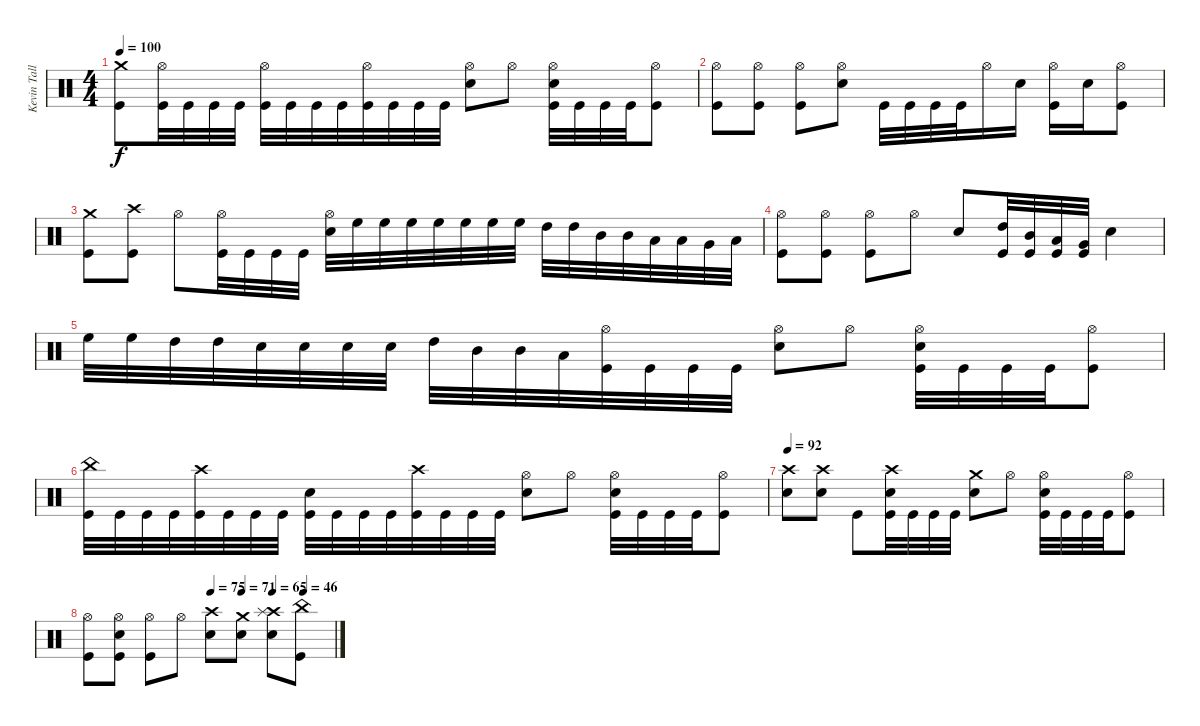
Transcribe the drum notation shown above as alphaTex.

\track ("Kevin Talley" "Kevin Tall") {instrument percussion}
\staff {score}
\articulation defaults
\ts (4 4)
\tempo 100
\clef neutral
\ks c
("Crash medium (hit)" "Kick (hit)").8{dy f} ("Hi-Hat (open)" "Kick (hit)").32 "Kick (hit)".32 "Kick (hit)".32 "Kick (hit)".32 ("Hi-Hat (open)" "Kick (hit)").32 "Kick (hit)".32 "Kick (hit)".32 "Kick (hit)".32 ("Hi-Hat (open)" "Kick (hit)").32 "Kick (hit)".32 "Kick (hit)".32 "Kick (hit)".32 ("Hi-Hat (open)" "Electric Snare (hit)").8 "Hi-Hat (open)".8 ("Hi-Hat (open)" "Electric Snare (hit)" "Kick (hit)").32 "Kick (hit)".32 "Kick (hit)".32 "Kick (hit)".32 ("Hi-Hat (open)" "Kick (hit)").8 |
("Hi-Hat (open)" "Kick (hit)").8 ("Hi-Hat (open)" "Kick (hit)").8 ("Hi-Hat (open)" "Kick (hit)").8 ("Hi-Hat (open)" "Electric Snare (hit)").8 "Kick (hit)".32 "Kick (hit)".32 "Kick (hit)".32 "Kick (hit)".32 "Hi-Hat (open)".16 "Electric Snare (hit)".16 ("Hi-Hat (open)" "Kick (hit)").16 "Electric Snare (hit)".16 ("Hi-Hat (open)" "Kick (hit)").8 |
("Crash medium (hit)" "Kick (hit)").8 ("Crash high (hit)" "Kick (hit)").8 "Hi-Hat (open)".8 ("Hi-Hat (open)" "Kick (hit)").32 "Kick (hit)".32 "Kick (hit)".32 "Kick (hit)".32 ("Hi-Hat (open)" "Electric Snare (hit)").32 "High Floor Tom (hit)".32 "High Floor Tom (hit)".32 "High Floor Tom (hit)".32 "High Floor Tom (hit)".32 "High Floor Tom (hit)".32 "High Floor Tom (hit)".32 "High Floor Tom (hit)".32 "High Tom (hit)".32 "High Tom (hit)".32 "Mid Tom (hit)".32 "Mid Tom (hit)".32 "Low Tom (hit)".32 "Low Tom (hit)".32 "Very Low Tom (hit)".32 "Low Floor Tom (hit)".32 |
("Hi-Hat (open)" "Kick (hit)").8 ("Hi-Hat (open)" "Kick (hit)").8 ("Hi-Hat (open)" "Kick (hit)").8 "Hi-Hat (open)".8 "Electric Snare (hit)".8 ("High Tom (hit)" "Kick (hit)").32 ("Mid Tom (hit)" "Kick (hit)").32 ("Low Tom (hit)" "Kick (hit)").32 ("Very Low Tom (hit)" "Kick (hit)").32 "Electric Snare (hit)".4 |
"High Floor Tom (hit)".32 "High Floor Tom (hit)".32 "High Tom (hit)".32 "High Tom (hit)".32 "Electric Snare (hit)".32 "Electric Snare (hit)".32 "Electric Snare (hit)".32 "Electric Snare (hit)".32 "High Tom (hit)".32 "Mid Tom (hit)".32 "Mid Tom (hit)".32 "Low Tom (hit)".32 ("Hi-Hat (open)" "Kick (hit)").32 "Kick (hit)".32 "Kick (hit)".32 "Kick (hit)".32 ("Hi-Hat (open)" "Electric Snare (hit)").8 "Hi-Hat (open)".8 ("Hi-Hat (open)" "Electric Snare (hit)" "Kick (hit)").32 "Kick (hit)".32 "Kick (hit)".32 "Kick (hit)".32 ("Hi-Hat (open)" "Kick (hit)").8 |
("China (hit)" "Kick (hit)").32 "Kick (hit)".32 "Kick (hit)".32 "Kick (hit)".32 ("Crash high (hit)" "Kick (hit)").32 "Kick (hit)".32 "Kick (hit)".32 "Kick (hit)".32 ("Electric Snare (hit)" "Kick (hit)").32 "Kick (hit)".32 "Kick (hit)".32 "Kick (hit)".32 ("Crash high (hit)" "Kick (hit)").32 "Kick (hit)".32 "Kick (hit)".32 "Kick (hit)".32 ("Hi-Hat (open)" "Electric Snare (hit)").8 "Hi-Hat (open)".8 ("Hi-Hat (open)" "Electric Snare (hit)" "Kick (hit)").32 "Kick (hit)".32 "Kick (hit)".32 "Kick (hit)".32 ("Hi-Hat (open)" "Kick (hit)").8 |
\tempo 92
("Crash high (hit)" "Electric Snare (hit)").8 ("Crash high (hit)" "Electric Snare (hit)").8 "Kick (hit)".8 ("Crash high (hit)" "Electric Snare (hit)" "Kick (hit)").32 "Kick (hit)".32 "Kick (hit)".32 "Kick (hit)".32 ("Crash medium (hit)" "Electric Snare (hit)").8 "Hi-Hat (open)".8 ("Hi-Hat (open)" "Electric Snare (hit)" "Kick (hit)").32 "Kick (hit)".32 "Kick (hit)".32 "Kick (hit)".32 ("Hi-Hat (open)" "Kick (hit)").8 |
\tempo (75 0.5)
\tempo (71 0.625)
\tempo (65 0.75)
\tempo (46 0.875)
("Hi-Hat (open)" "Kick (hit)").8 ("Hi-Hat (open)" "Electric Snare (hit)" "Kick (hit)").8 ("Hi-Hat (open)" "Kick (hit)").8 "Hi-Hat (open)".8 ("Crash high (hit)" "Electric Snare (hit)").8 ("Crash medium (hit)" "Electric Snare (hit)").8 ("Crash high (hit)" "Splash (hit)" "Electric Snare (hit)").8 ("China (hit)" "Kick (hit)").8
